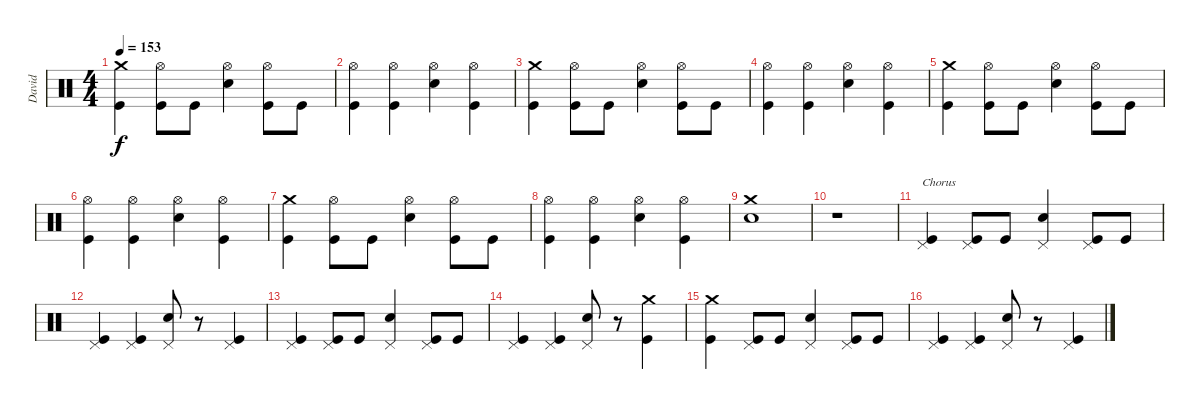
\track ("David" "David") {instrument percussion}
\staff {score}
\articulation defaults
\ts (4 4)
\tempo 153
\clef neutral
\ks c
("Crash medium (hit)" "Kick (hit)").4{dy f} ("Hi-Hat (open)" "Kick (hit)").8 "Kick (hit)".8 ("Hi-Hat (open)" "Snare (hit) 2").4 ("Hi-Hat (open)" "Kick (hit)").8 "Kick (hit)".8 |
("Hi-Hat (open)" "Kick (hit)").4 ("Hi-Hat (open)" "Kick (hit)").4 ("Hi-Hat (open)" "Snare (hit) 2").4 ("Hi-Hat (open)" "Kick (hit)").4 |
("Crash medium (hit)" "Kick (hit)").4 ("Hi-Hat (open)" "Kick (hit)").8 "Kick (hit)".8 ("Hi-Hat (open)" "Snare (hit) 2").4 ("Hi-Hat (open)" "Kick (hit)").8 "Kick (hit)".8 |
("Hi-Hat (open)" "Kick (hit)").4 ("Hi-Hat (open)" "Kick (hit)").4 ("Hi-Hat (open)" "Snare (hit) 2").4 ("Hi-Hat (open)" "Kick (hit)").4 |
("Crash medium (hit)" "Kick (hit)").4 ("Hi-Hat (open)" "Kick (hit)").8 "Kick (hit)".8 ("Hi-Hat (open)" "Snare (hit) 2").4 ("Hi-Hat (open)" "Kick (hit)").8 "Kick (hit)".8 |
("Hi-Hat (open)" "Kick (hit)").4 ("Hi-Hat (open)" "Kick (hit)").4 ("Hi-Hat (open)" "Snare (hit) 2").4 ("Hi-Hat (open)" "Kick (hit)").4 |
("Crash medium (hit)" "Kick (hit)").4 ("Hi-Hat (open)" "Kick (hit)").8 "Kick (hit)".8 ("Hi-Hat (open)" "Snare (hit) 2").4 ("Hi-Hat (open)" "Kick (hit)").8 "Kick (hit)".8 |
("Hi-Hat (open)" "Kick (hit)").4 ("Hi-Hat (open)" "Kick (hit)").4 ("Hi-Hat (open)" "Snare (hit) 2").4 ("Hi-Hat (open)" "Kick (hit)").4 |
("Crash medium (hit)" "Snare (hit) 2").1 |
r.1 |
("Pedal Hi-Hat (hit)" "Kick (hit)").4{txt "Chorus"} ("Pedal Hi-Hat (hit)" "Kick (hit)").8 "Kick (hit)".8 ("Pedal Hi-Hat (hit)" "Snare (hit) 2").4 ("Pedal Hi-Hat (hit)" "Kick (hit)").8 "Kick (hit)".8 |
("Pedal Hi-Hat (hit)" "Kick (hit)").4 ("Pedal Hi-Hat (hit)" "Kick (hit)").4 ("Pedal Hi-Hat (hit)" "Snare (hit) 2").8 r.8 ("Pedal Hi-Hat (hit)" "Kick (hit)").4 |
("Pedal Hi-Hat (hit)" "Kick (hit)").4 ("Pedal Hi-Hat (hit)" "Kick (hit)").8 "Kick (hit)".8 ("Pedal Hi-Hat (hit)" "Snare (hit) 2").4 ("Pedal Hi-Hat (hit)" "Kick (hit)").8 "Kick (hit)".8 |
("Pedal Hi-Hat (hit)" "Kick (hit)").4 ("Pedal Hi-Hat (hit)" "Kick (hit)").4 ("Pedal Hi-Hat (hit)" "Snare (hit) 2").8 r.8 ("Crash medium (hit)" "Kick (hit)").4 |
("Crash medium (hit)" "Kick (hit)").4 ("Pedal Hi-Hat (hit)" "Kick (hit)").8 "Kick (hit)".8 ("Pedal Hi-Hat (hit)" "Snare (hit) 2").4 ("Pedal Hi-Hat (hit)" "Kick (hit)").8 "Kick (hit)".8 |
("Pedal Hi-Hat (hit)" "Kick (hit)").4 ("Pedal Hi-Hat (hit)" "Kick (hit)").4 ("Pedal Hi-Hat (hit)" "Snare (hit) 2").8 r.8 ("Pedal Hi-Hat (hit)" "Kick (hit)").4
